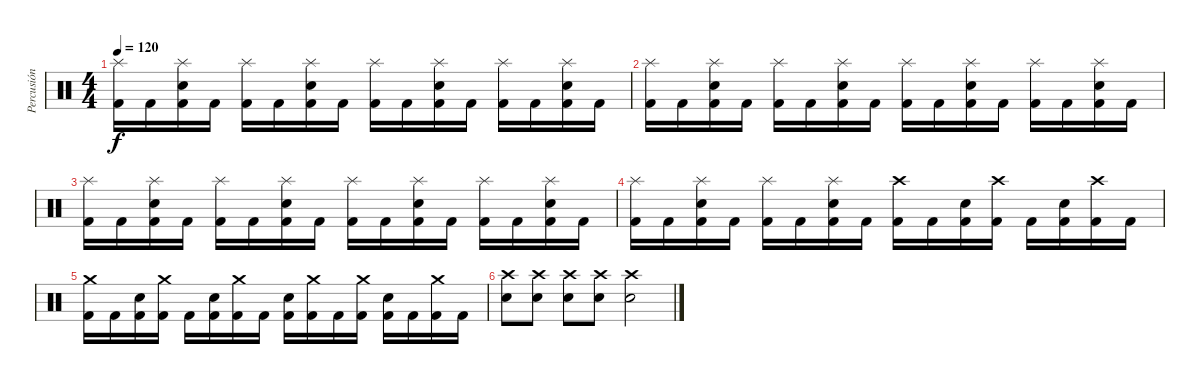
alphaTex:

\track ("Percusión" "Percusión") {instrument percussion}
\staff {score}
\articulation defaults
\ts (4 4)
\tempo 120
\clef neutral
\ks c
("Kick (hit) 2" "Splash (hit)").16{dy f} "Kick (hit) 2".16 ("Kick (hit) 2" "Splash (hit)" "Electric Snare (hit)").16 "Kick (hit) 2".16 ("Kick (hit) 2" "Splash (hit)").16 "Kick (hit) 2".16 ("Kick (hit) 2" "Splash (hit)" "Electric Snare (hit)").16 "Kick (hit) 2".16 ("Kick (hit) 2" "Splash (hit)").16 "Kick (hit) 2".16 ("Kick (hit) 2" "Splash (hit)" "Electric Snare (hit)").16 "Kick (hit) 2".16 ("Kick (hit) 2" "Splash (hit)").16 "Kick (hit) 2".16 ("Kick (hit) 2" "Splash (hit)" "Electric Snare (hit)").16 "Kick (hit) 2".16 |
("Kick (hit) 2" "Splash (hit)").16 "Kick (hit) 2".16 ("Kick (hit) 2" "Splash (hit)" "Electric Snare (hit)").16 "Kick (hit) 2".16 ("Kick (hit) 2" "Splash (hit)").16 "Kick (hit) 2".16 ("Kick (hit) 2" "Splash (hit)" "Electric Snare (hit)").16 "Kick (hit) 2".16 ("Kick (hit) 2" "Splash (hit)").16 "Kick (hit) 2".16 ("Kick (hit) 2" "Splash (hit)" "Electric Snare (hit)").16 "Kick (hit) 2".16 ("Kick (hit) 2" "Splash (hit)").16 "Kick (hit) 2".16 ("Kick (hit) 2" "Splash (hit)" "Electric Snare (hit)").16 "Kick (hit) 2".16 |
("Kick (hit) 2" "Splash (hit)").16 "Kick (hit) 2".16 ("Kick (hit) 2" "Splash (hit)" "Electric Snare (hit)").16 "Kick (hit) 2".16 ("Kick (hit) 2" "Splash (hit)").16 "Kick (hit) 2".16 ("Kick (hit) 2" "Splash (hit)" "Electric Snare (hit)").16 "Kick (hit) 2".16 ("Kick (hit) 2" "Splash (hit)").16 "Kick (hit) 2".16 ("Kick (hit) 2" "Splash (hit)" "Electric Snare (hit)").16 "Kick (hit) 2".16 ("Kick (hit) 2" "Splash (hit)").16 "Kick (hit) 2".16 ("Kick (hit) 2" "Splash (hit)" "Electric Snare (hit)").16 "Kick (hit) 2".16 |
("Kick (hit) 2" "Splash (hit)").16 "Kick (hit) 2".16 ("Kick (hit) 2" "Splash (hit)" "Electric Snare (hit)").16 "Kick (hit) 2".16 ("Kick (hit) 2" "Splash (hit)").16 "Kick (hit) 2".16 ("Kick (hit) 2" "Splash (hit)" "Electric Snare (hit)").16 "Kick (hit) 2".16 ("Kick (hit) 2" "Crash high (hit)").16 "Kick (hit) 2".16 ("Kick (hit) 2" "Electric Snare (hit)").16 ("Kick (hit) 2" "Crash high (hit)").16 "Kick (hit) 2".16 ("Kick (hit) 2" "Electric Snare (hit)").16 ("Kick (hit) 2" "Crash high (hit)").16 "Kick (hit) 2".16 |
("Kick (hit) 2" "Crash medium (hit)").16 "Kick (hit) 2".16 ("Kick (hit) 2" "Electric Snare (hit)").16 ("Kick (hit) 2" "Crash medium (hit)").16 "Kick (hit) 2".16 ("Kick (hit) 2" "Electric Snare (hit)").16 ("Kick (hit) 2" "Crash medium (hit)").16 "Kick (hit) 2".16 ("Kick (hit) 2" "Electric Snare (hit)").16 ("Kick (hit) 2" "Crash medium (hit)").16 "Kick (hit) 2".16 ("Kick (hit) 2" "Crash medium (hit)").16 ("Kick (hit) 2" "Electric Snare (hit)").16 "Kick (hit) 2".16 ("Kick (hit) 2" "Crash medium (hit)").16 "Kick (hit) 2".16 |
("Crash high (hit)" "Electric Snare (hit)").8 ("Crash high (hit)" "Electric Snare (hit)").8 ("Crash high (hit)" "Electric Snare (hit)").8 ("Crash high (hit)" "Electric Snare (hit)").8 ("Crash high (hit)" "Electric Snare (hit)").2
